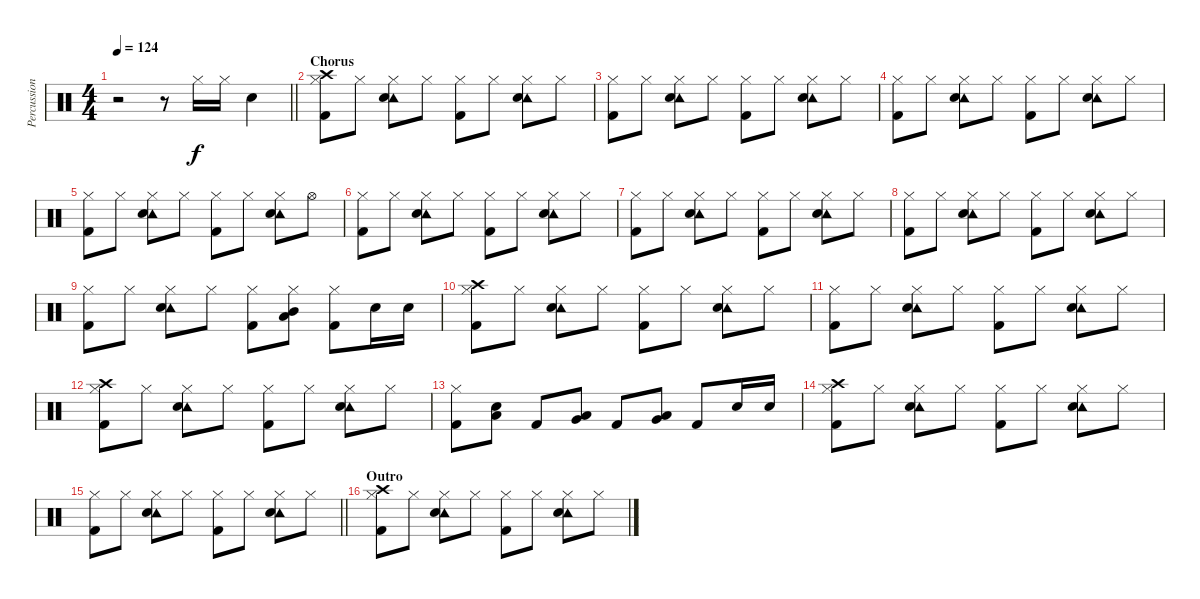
\track ("Percussion" "Percussion") {instrument percussion}
\staff {score}
\articulation defaults
\ts (4 4)
\tempo 124
\clef neutral
\barLineRight lightlight
\ks c
r.2{dy f} r.8 "Hi-Hat (closed)".16 "Hi-Hat (closed)".16 "Snare (hit) 2".4 |
\section ("" "Chorus")
("Hi-Hat (closed)" "Crash high (hit)" "Kick (hit) 2").8 "Hi-Hat (closed)".8 ("Hi-Hat (closed)" "Tambourine (hit)" "Snare (hit) 2").8 "Hi-Hat (closed)".8 ("Hi-Hat (closed)" "Kick (hit) 2").8 "Hi-Hat (closed)".8 ("Hi-Hat (closed)" "Tambourine (hit)" "Snare (hit) 2").8 "Hi-Hat (closed)".8 |
("Hi-Hat (closed)" "Kick (hit) 2").8 "Hi-Hat (closed)".8 ("Hi-Hat (closed)" "Tambourine (hit)" "Snare (hit) 2").8 "Hi-Hat (closed)".8 ("Hi-Hat (closed)" "Kick (hit) 2").8 "Hi-Hat (closed)".8 ("Hi-Hat (closed)" "Tambourine (hit)" "Snare (hit) 2").8 "Hi-Hat (closed)".8 |
("Hi-Hat (closed)" "Kick (hit) 2").8 "Hi-Hat (closed)".8 ("Hi-Hat (closed)" "Tambourine (hit)" "Snare (hit) 2").8 "Hi-Hat (closed)".8 ("Hi-Hat (closed)" "Kick (hit) 2").8 "Hi-Hat (closed)".8 ("Hi-Hat (closed)" "Tambourine (hit)" "Snare (hit) 2").8 "Hi-Hat (closed)".8 |
("Hi-Hat (closed)" "Kick (hit) 2").8 "Hi-Hat (closed)".8 ("Hi-Hat (closed)" "Tambourine (hit)" "Snare (hit) 2").8 "Hi-Hat (closed)".8 ("Hi-Hat (closed)" "Kick (hit) 2").8 "Hi-Hat (closed)".8 ("Hi-Hat (closed)" "Tambourine (hit)" "Snare (hit) 2").8 "Hi-Hat (open)".8 |
("Hi-Hat (closed)" "Kick (hit) 2").8 "Hi-Hat (closed)".8 ("Hi-Hat (closed)" "Tambourine (hit)" "Snare (hit) 2").8 "Hi-Hat (closed)".8 ("Hi-Hat (closed)" "Kick (hit) 2").8 "Hi-Hat (closed)".8 ("Hi-Hat (closed)" "Tambourine (hit)" "Snare (hit) 2").8 "Hi-Hat (closed)".8 |
("Hi-Hat (closed)" "Kick (hit) 2").8 "Hi-Hat (closed)".8 ("Hi-Hat (closed)" "Tambourine (hit)" "Snare (hit) 2").8 "Hi-Hat (closed)".8 ("Hi-Hat (closed)" "Kick (hit) 2").8 "Hi-Hat (closed)".8 ("Hi-Hat (closed)" "Tambourine (hit)" "Snare (hit) 2").8 "Hi-Hat (closed)".8 |
("Hi-Hat (closed)" "Kick (hit) 2").8 "Hi-Hat (closed)".8 ("Hi-Hat (closed)" "Tambourine (hit)" "Snare (hit) 2").8 "Hi-Hat (closed)".8 ("Hi-Hat (closed)" "Kick (hit) 2").8 "Hi-Hat (closed)".8 ("Hi-Hat (closed)" "Tambourine (hit)" "Snare (hit) 2").8 "Hi-Hat (closed)".8 |
("Hi-Hat (closed)" "Kick (hit) 2").8 "Hi-Hat (closed)".8 ("Hi-Hat (closed)" "Tambourine (hit)" "Snare (hit) 2").8 "Hi-Hat (closed)".8 ("Hi-Hat (closed)" "Kick (hit) 2").8 ("Hi-Hat (closed)" "Mid Tom (hit)" "Low Tom (hit)").8 ("Hi-Hat (closed)" "Kick (hit) 2").8 "Snare (hit) 2".16 "Snare (hit) 2".16 |
("Hi-Hat (closed)" "Crash high (hit)" "Kick (hit) 2").8 "Hi-Hat (closed)".8 ("Hi-Hat (closed)" "Tambourine (hit)" "Snare (hit) 2").8 "Hi-Hat (closed)".8 ("Hi-Hat (closed)" "Kick (hit) 2").8 "Hi-Hat (closed)".8 ("Hi-Hat (closed)" "Tambourine (hit)" "Snare (hit) 2").8 "Hi-Hat (closed)".8 |
("Hi-Hat (closed)" "Kick (hit) 2").8 "Hi-Hat (closed)".8 ("Hi-Hat (closed)" "Tambourine (hit)" "Snare (hit) 2").8 "Hi-Hat (closed)".8 ("Hi-Hat (closed)" "Kick (hit) 2").8 "Hi-Hat (closed)".8 ("Hi-Hat (closed)" "Tambourine (hit)" "Snare (hit) 2").8 "Hi-Hat (closed)".8 |
("Hi-Hat (closed)" "Crash high (hit)" "Kick (hit) 2").8 "Hi-Hat (closed)".8 ("Hi-Hat (closed)" "Tambourine (hit)" "Snare (hit) 2").8 "Hi-Hat (closed)".8 ("Hi-Hat (closed)" "Kick (hit) 2").8 "Hi-Hat (closed)".8 ("Hi-Hat (closed)" "Tambourine (hit)" "Snare (hit) 2").8 "Hi-Hat (closed)".8 |
("Hi-Hat (closed)" "Kick (hit) 2").8 ("Low Tom (hit)" "Snare (hit) 2").8 "Kick (hit) 2".8 ("Low Tom (hit)" "Very Low Tom (hit)").8 "Kick (hit) 2".8 ("Very Low Tom (hit)" "Low Floor Tom (hit)").8 "Kick (hit) 2".8 "Snare (hit) 2".16 "Snare (hit) 2".16 |
("Hi-Hat (closed)" "Crash high (hit)" "Kick (hit) 2").8 "Hi-Hat (closed)".8 ("Hi-Hat (closed)" "Tambourine (hit)" "Snare (hit) 2").8 "Hi-Hat (closed)".8 ("Hi-Hat (closed)" "Kick (hit) 2").8 "Hi-Hat (closed)".8 ("Hi-Hat (closed)" "Tambourine (hit)" "Snare (hit) 2").8 "Hi-Hat (closed)".8 |
\barLineRight lightlight
("Hi-Hat (closed)" "Kick (hit) 2").8 "Hi-Hat (closed)".8 ("Hi-Hat (closed)" "Tambourine (hit)" "Snare (hit) 2").8 "Hi-Hat (closed)".8 ("Hi-Hat (closed)" "Kick (hit) 2").8 "Hi-Hat (closed)".8 ("Hi-Hat (closed)" "Tambourine (hit)" "Snare (hit) 2").8 "Hi-Hat (closed)".8 |
\section ("" "Outro")
("Hi-Hat (closed)" "Crash high (hit)" "Kick (hit) 2").8 "Hi-Hat (closed)".8 ("Hi-Hat (closed)" "Tambourine (hit)" "Snare (hit) 2").8 "Hi-Hat (closed)".8 ("Hi-Hat (closed)" "Kick (hit) 2").8 "Hi-Hat (closed)".8 ("Hi-Hat (closed)" "Tambourine (hit)" "Snare (hit) 2").8 "Hi-Hat (closed)".8
